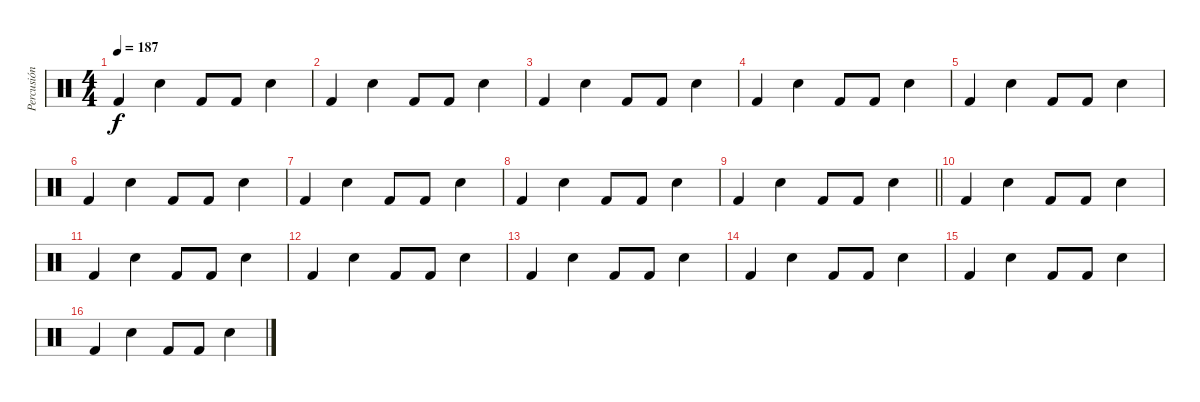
\track ("Percusión" "Percusión") {instrument percussion}
\staff {score}
\articulation defaults
\ts (4 4)
\tempo 187
\clef neutral
\ks c "Kick (hit) 2".4{dy f} "Snare (hit) 2".4 "Kick (hit) 2".8 "Kick (hit) 2".8 "Snare (hit) 2".4
|
"Kick (hit) 2".4 "Snare (hit) 2".4 "Kick (hit) 2".8 "Kick (hit) 2".8 "Snare (hit) 2".4 |
"Kick (hit) 2".4 "Snare (hit) 2".4 "Kick (hit) 2".8 "Kick (hit) 2".8 "Snare (hit) 2".4 |
"Kick (hit) 2".4 "Snare (hit) 2".4 "Kick (hit) 2".8 "Kick (hit) 2".8 "Snare (hit) 2".4 |
"Kick (hit) 2".4 "Snare (hit) 2".4 "Kick (hit) 2".8 "Kick (hit) 2".8 "Snare (hit) 2".4 |
"Kick (hit) 2".4 "Snare (hit) 2".4 "Kick (hit) 2".8 "Kick (hit) 2".8 "Snare (hit) 2".4 |
"Kick (hit) 2".4 "Snare (hit) 2".4 "Kick (hit) 2".8 "Kick (hit) 2".8 "Snare (hit) 2".4 |
"Kick (hit) 2".4 "Snare (hit) 2".4 "Kick (hit) 2".8 "Kick (hit) 2".8 "Snare (hit) 2".4 |
\barLineRight lightlight "Kick (hit) 2".4 "Snare (hit) 2".4 "Kick (hit) 2".8 "Kick (hit) 2".8 "Snare (hit) 2".4
|
"Kick (hit) 2".4 "Snare (hit) 2".4 "Kick (hit) 2".8 "Kick (hit) 2".8 "Snare (hit) 2".4 |
"Kick (hit) 2".4 "Snare (hit) 2".4 "Kick (hit) 2".8 "Kick (hit) 2".8 "Snare (hit) 2".4 |
"Kick (hit) 2".4 "Snare (hit) 2".4 "Kick (hit) 2".8 "Kick (hit) 2".8 "Snare (hit) 2".4 |
"Kick (hit) 2".4 "Snare (hit) 2".4 "Kick (hit) 2".8 "Kick (hit) 2".8 "Snare (hit) 2".4 |
"Kick (hit) 2".4 "Snare (hit) 2".4 "Kick (hit) 2".8 "Kick (hit) 2".8 "Snare (hit) 2".4 |
"Kick (hit) 2".4 "Snare (hit) 2".4 "Kick (hit) 2".8 "Kick (hit) 2".8 "Snare (hit) 2".4 |
"Kick (hit) 2".4 "Snare (hit) 2".4 "Kick (hit) 2".8 "Kick (hit) 2".8 "Snare (hit) 2".4
